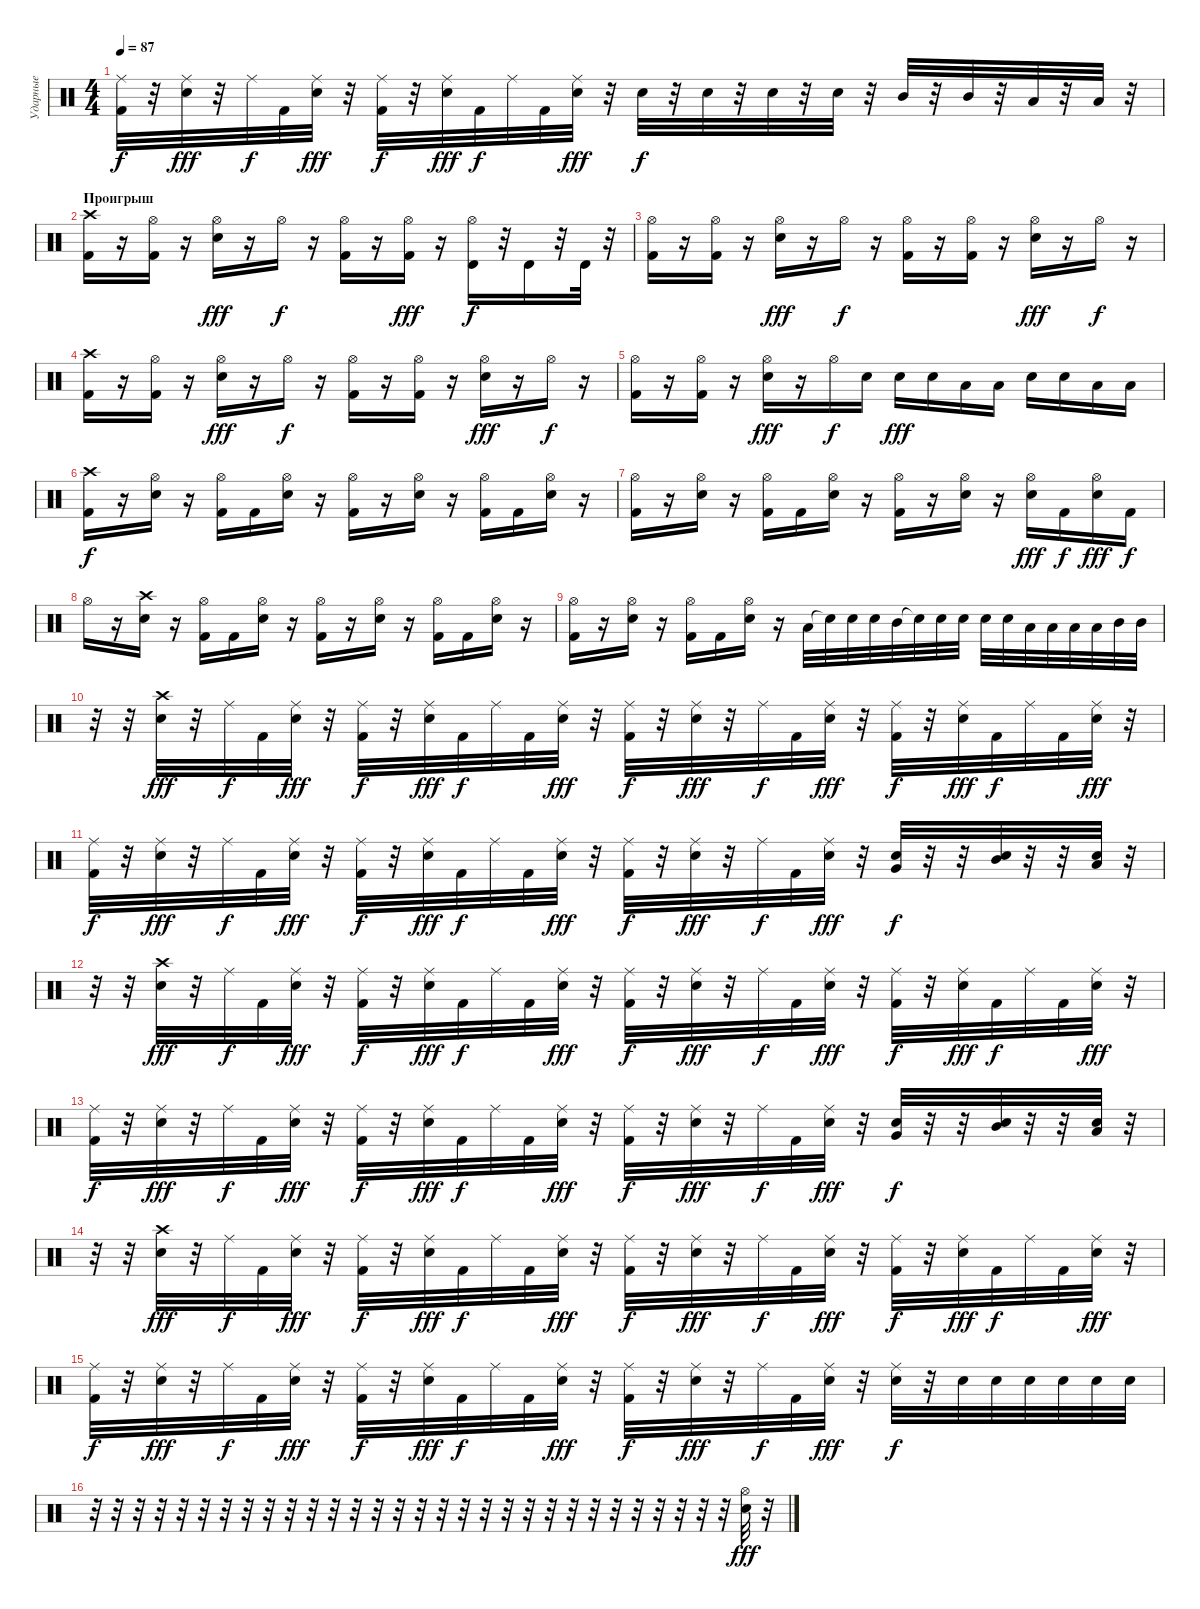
\track ("Ударные" "Ударные") {instrument percussion}
\staff {score}
\articulation defaults
\ts (4 4)
\tempo 87
\clef neutral
\ks c
("Ride (middle)" "Kick (hit) 2").32{dy f} r.32 ("Ride (middle)" "Snare (hit) 2").32{dy fff} r.32 "Ride (middle)".32{dy f} "Kick (hit) 2".32 ("Ride (middle)" "Snare (hit) 2").32{dy fff} r.32 ("Ride (middle)" "Kick (hit) 2").32{dy f} r.32 ("Ride (middle)" "Snare (hit) 2").32{dy fff} "Kick (hit) 2".32{dy f} "Ride (middle)".32 "Kick (hit) 2".32 ("Ride (middle)" "Snare (hit) 2").32{dy fff} r.32 "Snare (hit) 2".32{dy f} r.32 "Snare (hit) 2".32 r.32 "Snare (hit) 2".32 r.32 "Snare (hit) 2".32 r.32 "Mid Tom (hit)".32 r.32 "Mid Tom (hit)".32 r.32 "Low Tom (hit)".32 r.32 "Low Tom (hit)".32 r.32 |
\section ("" "Проигрыш")
("Crash high (hit)" "Kick (hit) 2").16 r.16 ("Hi-Hat (open)" "Kick (hit) 2").16 r.16 ("Hi-Hat (open)" "Snare (hit) 2").16{dy fff} r.16 "Hi-Hat (open)".16{dy f} r.16 ("Hi-Hat (open)" "Kick (hit) 2").16 r.16 ("Hi-Hat (open)" "Kick (hit) 2").16{dy fff} r.16 ("Hi-Hat (open)" "Timbale high (hit)").16{dy f} r.32 "Timbale high (hit)".16 r.32 "Timbale high (hit)".32 r.32 |
("Hi-Hat (open)" "Kick (hit) 2").16 r.16 ("Hi-Hat (open)" "Kick (hit) 2").16 r.16 ("Hi-Hat (open)" "Snare (hit) 2").16{dy fff} r.16 "Hi-Hat (open)".16{dy f} r.16 ("Hi-Hat (open)" "Kick (hit) 2").16 r.16 ("Hi-Hat (open)" "Kick (hit) 2").16 r.16 ("Hi-Hat (open)" "Snare (hit) 2").16{dy fff} r.16 "Hi-Hat (open)".16{dy f} r.16 |
("Crash high (hit)" "Kick (hit) 2").16 r.16 ("Hi-Hat (open)" "Kick (hit) 2").16 r.16 ("Hi-Hat (open)" "Snare (hit) 2").16{dy fff} r.16 "Hi-Hat (open)".16{dy f} r.16 ("Hi-Hat (open)" "Kick (hit) 2").16 r.16 ("Hi-Hat (open)" "Kick (hit) 2").16 r.16 ("Hi-Hat (open)" "Snare (hit) 2").16{dy fff} r.16 "Hi-Hat (open)".16{dy f} r.16 |
("Hi-Hat (open)" "Kick (hit) 2").16 r.16 ("Hi-Hat (open)" "Kick (hit) 2").16 r.16 ("Hi-Hat (open)" "Snare (hit) 2").16{dy fff} r.16 "Hi-Hat (open)".16{dy f} "Snare (hit) 2".16 "Snare (hit) 2".16{dy fff} "Snare (hit) 2".16 "Low Tom (hit)".16 "Low Tom (hit)".16 "Snare (hit) 2".16 "Snare (hit) 2".16 "Low Tom (hit)".16 "Low Tom (hit)".16 |
("Crash high (hit)" "Kick (hit) 2").16{dy f} r.16 ("Hi-Hat (open)" "Snare (hit) 2").16 r.16 ("Hi-Hat (open)" "Kick (hit) 2").16 "Kick (hit) 2".16 ("Hi-Hat (open)" "Snare (hit) 2").16 r.16 ("Hi-Hat (open)" "Kick (hit) 2").16 r.16 ("Hi-Hat (open)" "Snare (hit) 2").16 r.16 ("Hi-Hat (open)" "Kick (hit) 2").16 "Kick (hit) 2".16 ("Hi-Hat (open)" "Snare (hit) 2").16 r.16 |
("Hi-Hat (open)" "Kick (hit) 2").16 r.16 ("Hi-Hat (open)" "Snare (hit) 2").16 r.16 ("Hi-Hat (open)" "Kick (hit) 2").16 "Kick (hit) 2".16 ("Hi-Hat (open)" "Snare (hit) 2").16 r.16 ("Hi-Hat (open)" "Kick (hit) 2").16 r.16 ("Hi-Hat (open)" "Snare (hit) 2").16 r.16 ("Hi-Hat (open)" "Snare (hit) 2").16{dy fff} "Kick (hit) 2".16{dy f} ("Hi-Hat (open)" "Snare (hit) 2").16{dy fff} "Kick (hit) 2".16{dy f} |
"Hi-Hat (open)".16 r.16 ("Crash high (hit)" "Snare (hit) 2").16 r.16 ("Hi-Hat (open)" "Kick (hit) 2").16 "Kick (hit) 2".16 ("Hi-Hat (open)" "Snare (hit) 2").16 r.16 ("Hi-Hat (open)" "Kick (hit) 2").16 r.16 ("Hi-Hat (open)" "Snare (hit) 2").16 r.16 ("Hi-Hat (open)" "Kick (hit) 2").16 "Kick (hit) 2".16 ("Hi-Hat (open)" "Snare (hit) 2").16 r.16 |
("Hi-Hat (open)" "Kick (hit) 2").16 r.16 ("Hi-Hat (open)" "Snare (hit) 2").16 r.16 ("Hi-Hat (open)" "Kick (hit) 2").16 "Kick (hit) 2".16 ("Hi-Hat (open)" "Snare (hit) 2").16 r.16 "Low Tom (hit)".32 "Snare (hit) 2"{t}.32 "Snare (hit) 2".32 "Snare (hit) 2".32 "Mid Tom (hit)".32 "Snare (hit) 2"{t}.32 "Snare (hit) 2".32 "Snare (hit) 2".32 "Snare (hit) 2".32 "Snare (hit) 2".32 "Low Tom (hit)".32 "Low Tom (hit)".32 "Low Tom (hit)".32 "Low Tom (hit)".32 "Mid Tom (hit)".32 "Mid Tom (hit)".32 |
r.32 r.32 ("Crash high (hit)" "Snare (hit) 2").32{dy fff} r.32 "Ride (middle)".32{dy f} "Kick (hit) 2".32 ("Ride (middle)" "Snare (hit) 2").32{dy fff} r.32 ("Ride (middle)" "Kick (hit) 2").32{dy f} r.32 ("Ride (middle)" "Snare (hit) 2").32{dy fff} "Kick (hit) 2".32{dy f} "Ride (middle)".32 "Kick (hit) 2".32 ("Ride (middle)" "Snare (hit) 2").32{dy fff} r.32 ("Ride (middle)" "Kick (hit) 2").32{dy f} r.32 ("Ride (middle)" "Snare (hit) 2").32{dy fff} r.32 "Ride (middle)".32{dy f} "Kick (hit) 2".32 ("Ride (middle)" "Snare (hit) 2").32{dy fff} r.32 ("Ride (middle)" "Kick (hit) 2").32{dy f} r.32 ("Ride (middle)" "Snare (hit) 2").32{dy fff} "Kick (hit) 2".32{dy f} "Ride (middle)".32 "Kick (hit) 2".32 ("Ride (middle)" "Snare (hit) 2").32{dy fff} r.32 |
("Ride (middle)" "Kick (hit) 2").32{dy f} r.32 ("Ride (middle)" "Snare (hit) 2").32{dy fff} r.32 "Ride (middle)".32{dy f} "Kick (hit) 2".32 ("Ride (middle)" "Snare (hit) 2").32{dy fff} r.32 ("Ride (middle)" "Kick (hit) 2").32{dy f} r.32 ("Ride (middle)" "Snare (hit) 2").32{dy fff} "Kick (hit) 2".32{dy f} "Ride (middle)".32 "Kick (hit) 2".32 ("Ride (middle)" "Snare (hit) 2").32{dy fff} r.32 ("Ride (middle)" "Kick (hit) 2").32{dy f} r.32 ("Ride (middle)" "Snare (hit) 2").32{dy fff} r.32 "Ride (middle)".32{dy f} "Kick (hit) 2".32 ("Ride (middle)" "Snare (hit) 2").32{dy fff} r.32 ("Very Low Tom (hit)" "Snare (hit) 2").32{dy f} r.32 r.32 ("Mid Tom (hit)" "Snare (hit) 2").32 r.32 r.32 ("Low Tom (hit)" "Snare (hit) 2").32 r.32 |
r.32 r.32 ("Crash high (hit)" "Snare (hit) 2").32{dy fff} r.32 "Ride (middle)".32{dy f} "Kick (hit) 2".32 ("Ride (middle)" "Snare (hit) 2").32{dy fff} r.32 ("Ride (middle)" "Kick (hit) 2").32{dy f} r.32 ("Ride (middle)" "Snare (hit) 2").32{dy fff} "Kick (hit) 2".32{dy f} "Ride (middle)".32 "Kick (hit) 2".32 ("Ride (middle)" "Snare (hit) 2").32{dy fff} r.32 ("Ride (middle)" "Kick (hit) 2").32{dy f} r.32 ("Ride (middle)" "Snare (hit) 2").32{dy fff} r.32 "Ride (middle)".32{dy f} "Kick (hit) 2".32 ("Ride (middle)" "Snare (hit) 2").32{dy fff} r.32 ("Ride (middle)" "Kick (hit) 2").32{dy f} r.32 ("Ride (middle)" "Snare (hit) 2").32{dy fff} "Kick (hit) 2".32{dy f} "Ride (middle)".32 "Kick (hit) 2".32 ("Ride (middle)" "Snare (hit) 2").32{dy fff} r.32 |
("Ride (middle)" "Kick (hit) 2").32{dy f} r.32 ("Ride (middle)" "Snare (hit) 2").32{dy fff} r.32 "Ride (middle)".32{dy f} "Kick (hit) 2".32 ("Ride (middle)" "Snare (hit) 2").32{dy fff} r.32 ("Ride (middle)" "Kick (hit) 2").32{dy f} r.32 ("Ride (middle)" "Snare (hit) 2").32{dy fff} "Kick (hit) 2".32{dy f} "Ride (middle)".32 "Kick (hit) 2".32 ("Ride (middle)" "Snare (hit) 2").32{dy fff} r.32 ("Ride (middle)" "Kick (hit) 2").32{dy f} r.32 ("Ride (middle)" "Snare (hit) 2").32{dy fff} r.32 "Ride (middle)".32{dy f} "Kick (hit) 2".32 ("Ride (middle)" "Snare (hit) 2").32{dy fff} r.32 ("Very Low Tom (hit)" "Snare (hit) 2").32{dy f} r.32 r.32 ("Mid Tom (hit)" "Snare (hit) 2").32 r.32 r.32 ("Low Tom (hit)" "Snare (hit) 2").32 r.32 |
r.32 r.32 ("Crash high (hit)" "Snare (hit) 2").32{dy fff} r.32 "Ride (middle)".32{dy f} "Kick (hit) 2".32 ("Ride (middle)" "Snare (hit) 2").32{dy fff} r.32 ("Ride (middle)" "Kick (hit) 2").32{dy f} r.32 ("Ride (middle)" "Snare (hit) 2").32{dy fff} "Kick (hit) 2".32{dy f} "Ride (middle)".32 "Kick (hit) 2".32 ("Ride (middle)" "Snare (hit) 2").32{dy fff} r.32 ("Ride (middle)" "Kick (hit) 2").32{dy f} r.32 ("Ride (middle)" "Snare (hit) 2").32{dy fff} r.32 "Ride (middle)".32{dy f} "Kick (hit) 2".32 ("Ride (middle)" "Snare (hit) 2").32{dy fff} r.32 ("Ride (middle)" "Kick (hit) 2").32{dy f} r.32 ("Ride (middle)" "Snare (hit) 2").32{dy fff} "Kick (hit) 2".32{dy f} "Ride (middle)".32 "Kick (hit) 2".32 ("Ride (middle)" "Snare (hit) 2").32{dy fff} r.32 |
("Ride (middle)" "Kick (hit) 2").32{dy f} r.32 ("Ride (middle)" "Snare (hit) 2").32{dy fff} r.32 "Ride (middle)".32{dy f} "Kick (hit) 2".32 ("Ride (middle)" "Snare (hit) 2").32{dy fff} r.32 ("Ride (middle)" "Kick (hit) 2").32{dy f} r.32 ("Ride (middle)" "Snare (hit) 2").32{dy fff} "Kick (hit) 2".32{dy f} "Ride (middle)".32 "Kick (hit) 2".32 ("Ride (middle)" "Snare (hit) 2").32{dy fff} r.32 ("Ride (middle)" "Kick (hit) 2").32{dy f} r.32 ("Ride (middle)" "Snare (hit) 2").32{dy fff} r.32 "Ride (middle)".32{dy f} "Kick (hit) 2".32 ("Ride (middle)" "Snare (hit) 2").32{dy fff} r.32 ("Ride (middle)" "Snare (hit) 2").32{dy f} r.32 "Snare (hit) 2".32 "Snare (hit) 2".32 "Snare (hit) 2".32 "Snare (hit) 2".32 "Snare (hit) 2".32 "Snare (hit) 2".32 |
r.32 r.32 r.32 r.32 r.32 r.32 r.32 r.32 r.32 r.32 r.32 r.32 r.32 r.32 r.32 r.32 r.32 r.32 r.32 r.32 r.32 r.32 r.32 r.32 r.32 r.32 r.32 r.32 r.32 r.32 ("Hi-Hat (open)" "Snare (hit) 2").32{dy fff} r.32
